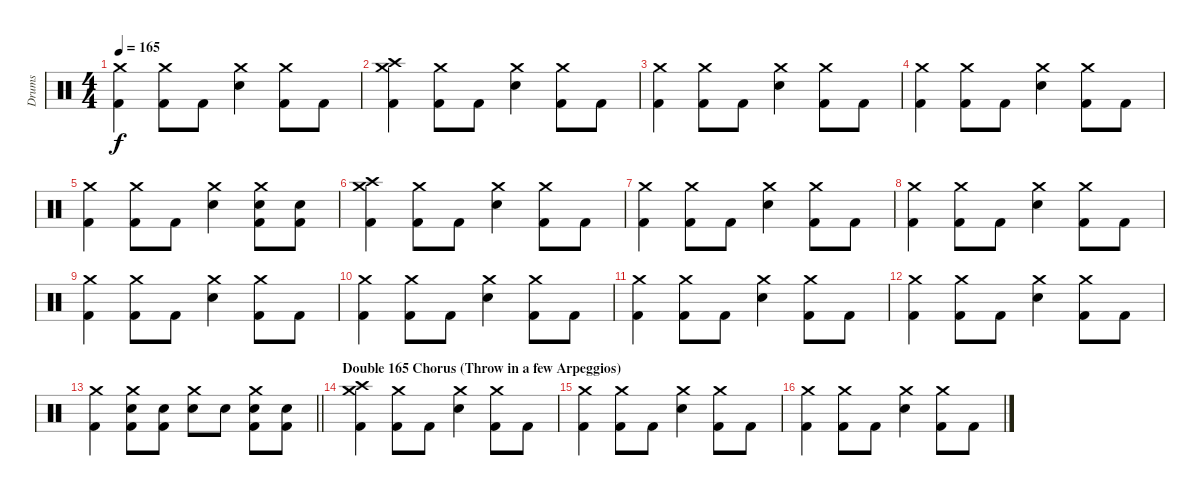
\track ("Drums" "Drums") {instrument percussion}
\staff {score}
\articulation defaults
\ts (4 4)
\tempo 165
\clef neutral
\ks c
("Crash medium (hit)" "Kick (hit) 2").4{dy f} ("Crash medium (hit)" "Kick (hit) 2").8 "Kick (hit) 2".8 ("Crash medium (hit)" "Snare (hit) 2").4 ("Crash medium (hit)" "Kick (hit) 2").8 "Kick (hit) 2".8 |
("Crash high (hit)" "Crash medium (hit)" "Kick (hit) 2").4 ("Crash medium (hit)" "Kick (hit) 2").8 "Kick (hit) 2".8 ("Crash medium (hit)" "Snare (hit) 2").4 ("Crash medium (hit)" "Kick (hit) 2").8 "Kick (hit) 2".8 |
("Crash medium (hit)" "Kick (hit) 2").4 ("Crash medium (hit)" "Kick (hit) 2").8 "Kick (hit) 2".8 ("Crash medium (hit)" "Snare (hit) 2").4 ("Crash medium (hit)" "Kick (hit) 2").8 "Kick (hit) 2".8 |
("Crash medium (hit)" "Kick (hit) 2").4 ("Crash medium (hit)" "Kick (hit) 2").8 "Kick (hit) 2".8 ("Crash medium (hit)" "Snare (hit) 2").4 ("Crash medium (hit)" "Kick (hit) 2").8 "Kick (hit) 2".8 |
("Crash medium (hit)" "Kick (hit) 2").4 ("Crash medium (hit)" "Kick (hit) 2").8 "Kick (hit) 2".8 ("Crash medium (hit)" "Snare (hit) 2").4 ("Crash medium (hit)" "Snare (hit) 2" "Kick (hit) 2").8 ("Snare (hit) 2" "Kick (hit) 2").8 |
("Crash high (hit)" "Crash medium (hit)" "Kick (hit) 2").4 ("Crash medium (hit)" "Kick (hit) 2").8 "Kick (hit) 2".8 ("Crash medium (hit)" "Snare (hit) 2").4 ("Crash medium (hit)" "Kick (hit) 2").8 "Kick (hit) 2".8 |
("Crash medium (hit)" "Kick (hit) 2").4 ("Crash medium (hit)" "Kick (hit) 2").8 "Kick (hit) 2".8 ("Crash medium (hit)" "Snare (hit) 2").4 ("Crash medium (hit)" "Kick (hit) 2").8 "Kick (hit) 2".8 |
("Crash medium (hit)" "Kick (hit) 2").4 ("Crash medium (hit)" "Kick (hit) 2").8 "Kick (hit) 2".8 ("Crash medium (hit)" "Snare (hit) 2").4 ("Crash medium (hit)" "Kick (hit) 2").8 "Kick (hit) 2".8 |
("Crash medium (hit)" "Kick (hit) 2").4 ("Crash medium (hit)" "Kick (hit) 2").8 "Kick (hit) 2".8 ("Crash medium (hit)" "Snare (hit) 2").4 ("Crash medium (hit)" "Kick (hit) 2").8 "Kick (hit) 2".8 |
("Crash medium (hit)" "Kick (hit) 2").4 ("Crash medium (hit)" "Kick (hit) 2").8 "Kick (hit) 2".8 ("Crash medium (hit)" "Snare (hit) 2").4 ("Crash medium (hit)" "Kick (hit) 2").8 "Kick (hit) 2".8 |
("Crash medium (hit)" "Kick (hit) 2").4 ("Crash medium (hit)" "Kick (hit) 2").8 "Kick (hit) 2".8 ("Crash medium (hit)" "Snare (hit) 2").4 ("Crash medium (hit)" "Kick (hit) 2").8 "Kick (hit) 2".8 |
("Crash medium (hit)" "Kick (hit) 2").4 ("Crash medium (hit)" "Kick (hit) 2").8 "Kick (hit) 2".8 ("Crash medium (hit)" "Snare (hit) 2").4 ("Crash medium (hit)" "Kick (hit) 2").8 "Kick (hit) 2".8 |
\barLineRight lightlight
("Crash medium (hit)" "Kick (hit) 2").4 ("Crash medium (hit)" "Snare (hit) 2" "Kick (hit) 2").8 ("Snare (hit) 2" "Kick (hit) 2").8 ("Crash medium (hit)" "Snare (hit) 2").8 "Snare (hit) 2".8 ("Crash medium (hit)" "Snare (hit) 2" "Kick (hit) 2").8 ("Snare (hit) 2" "Kick (hit) 2").8 |
\section ("" "Double 165 Chorus (Throw in a few Arpeggios)")
("Crash high (hit)" "Crash medium (hit)" "Kick (hit) 2").4 ("Crash medium (hit)" "Kick (hit) 2").8 "Kick (hit) 2".8 ("Crash medium (hit)" "Snare (hit) 2").4 ("Crash medium (hit)" "Kick (hit) 2").8 "Kick (hit) 2".8 |
("Crash medium (hit)" "Kick (hit) 2").4 ("Crash medium (hit)" "Kick (hit) 2").8 "Kick (hit) 2".8 ("Crash medium (hit)" "Snare (hit) 2").4 ("Crash medium (hit)" "Kick (hit) 2").8 "Kick (hit) 2".8 |
("Crash medium (hit)" "Kick (hit) 2").4 ("Crash medium (hit)" "Kick (hit) 2").8 "Kick (hit) 2".8 ("Crash medium (hit)" "Snare (hit) 2").4 ("Crash medium (hit)" "Kick (hit) 2").8 "Kick (hit) 2".8
